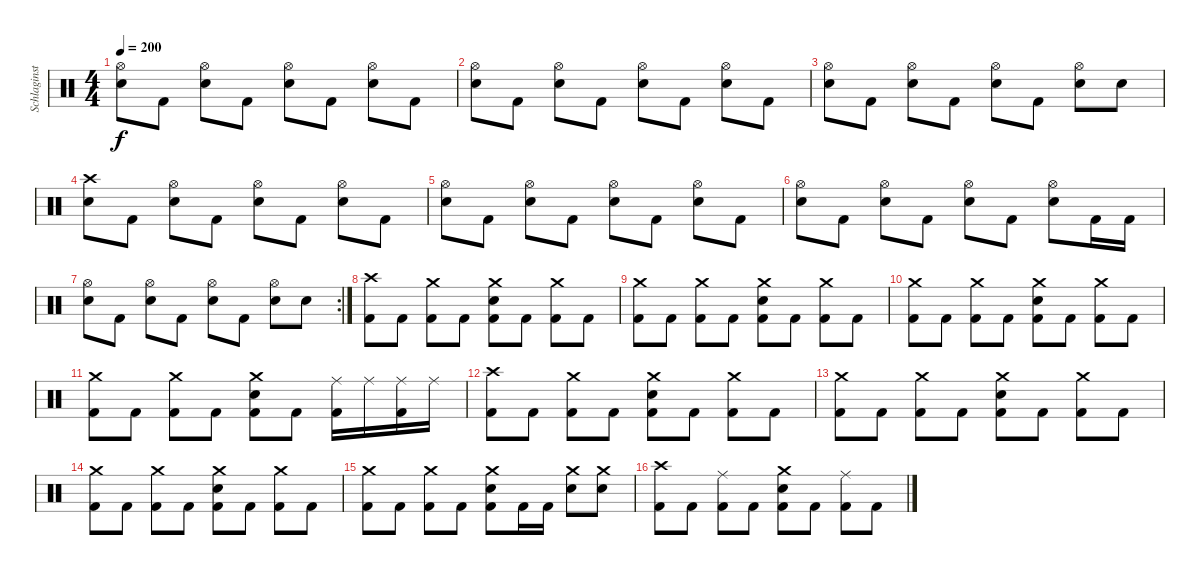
\track ("Schlaginstrumente - Auswahl" "Schlaginst") {instrument percussion}
\staff {score}
\articulation defaults
\ts (4 4)
\tempo 200
\clef neutral
\ks c
("Hi-Hat (open)" "Electric Snare (hit)").8{dy f} "Kick (hit) 2".8 ("Hi-Hat (open)" "Electric Snare (hit)").8 "Kick (hit) 2".8 ("Hi-Hat (open)" "Electric Snare (hit)").8 "Kick (hit) 2".8 ("Hi-Hat (open)" "Electric Snare (hit)").8 "Kick (hit) 2".8 |
("Hi-Hat (open)" "Electric Snare (hit)").8 "Kick (hit) 2".8 ("Hi-Hat (open)" "Electric Snare (hit)").8 "Kick (hit) 2".8 ("Hi-Hat (open)" "Electric Snare (hit)").8 "Kick (hit) 2".8 ("Hi-Hat (open)" "Electric Snare (hit)").8 "Kick (hit) 2".8 |
("Hi-Hat (open)" "Electric Snare (hit)").8 "Kick (hit) 2".8 ("Hi-Hat (open)" "Electric Snare (hit)").8 "Kick (hit) 2".8 ("Hi-Hat (open)" "Electric Snare (hit)").8 "Kick (hit) 2".8 ("Hi-Hat (open)" "Electric Snare (hit)").8 "Electric Snare (hit)".8 |
("Crash high (hit)" "Electric Snare (hit)").8 "Kick (hit) 2".8 ("Hi-Hat (open)" "Electric Snare (hit)").8 "Kick (hit) 2".8 ("Hi-Hat (open)" "Electric Snare (hit)").8 "Kick (hit) 2".8 ("Hi-Hat (open)" "Electric Snare (hit)").8 "Kick (hit) 2".8 |
("Hi-Hat (open)" "Electric Snare (hit)").8 "Kick (hit) 2".8 ("Hi-Hat (open)" "Electric Snare (hit)").8 "Kick (hit) 2".8 ("Hi-Hat (open)" "Electric Snare (hit)").8 "Kick (hit) 2".8 ("Hi-Hat (open)" "Electric Snare (hit)").8 "Kick (hit) 2".8 |
("Hi-Hat (open)" "Electric Snare (hit)").8 "Kick (hit) 2".8 ("Hi-Hat (open)" "Electric Snare (hit)").8 "Kick (hit) 2".8 ("Hi-Hat (open)" "Electric Snare (hit)").8 "Kick (hit) 2".8 ("Hi-Hat (open)" "Electric Snare (hit)").8 "Kick (hit) 2".16 "Kick (hit) 2".16 |
\rc 2
("Hi-Hat (open)" "Electric Snare (hit)").8 "Kick (hit) 2".8 ("Hi-Hat (open)" "Electric Snare (hit)").8 "Kick (hit) 2".8 ("Hi-Hat (open)" "Electric Snare (hit)").8 "Kick (hit) 2".8 ("Hi-Hat (open)" "Electric Snare (hit)").8 "Electric Snare (hit)".8 |
("Crash high (hit)" "Kick (hit) 2").8 "Kick (hit) 2".8 ("Crash medium (hit)" "Kick (hit) 2").8 "Kick (hit) 2".8 ("Crash medium (hit)" "Electric Snare (hit)" "Kick (hit) 2").8 "Kick (hit) 2".8 ("Crash medium (hit)" "Kick (hit) 2").8 "Kick (hit) 2".8 |
("Crash medium (hit)" "Kick (hit) 2").8 "Kick (hit) 2".8 ("Crash medium (hit)" "Kick (hit) 2").8 "Kick (hit) 2".8 ("Crash medium (hit)" "Electric Snare (hit)" "Kick (hit) 2").8 "Kick (hit) 2".8 ("Crash medium (hit)" "Kick (hit) 2").8 "Kick (hit) 2".8 |
("Crash medium (hit)" "Kick (hit) 2").8 "Kick (hit) 2".8 ("Crash medium (hit)" "Kick (hit) 2").8 "Kick (hit) 2".8 ("Crash medium (hit)" "Electric Snare (hit)" "Kick (hit) 2").8 "Kick (hit) 2".8 ("Crash medium (hit)" "Kick (hit) 2").8 "Kick (hit) 2".8 |
("Crash medium (hit)" "Kick (hit) 2").8 "Kick (hit) 2".8 ("Crash medium (hit)" "Kick (hit) 2").8 "Kick (hit) 2".8 ("Crash medium (hit)" "Electric Snare (hit)" "Kick (hit) 2").8 "Kick (hit) 2".8 ("Ride (middle)" "Kick (hit) 2").16 "Ride (middle)".16 ("Ride (middle)" "Kick (hit) 2").16 "Ride (middle)".16 |
("Crash high (hit)" "Kick (hit) 2").8 "Kick (hit) 2".8 ("Crash medium (hit)" "Kick (hit) 2").8 "Kick (hit) 2".8 ("Crash medium (hit)" "Electric Snare (hit)" "Kick (hit) 2").8 "Kick (hit) 2".8 ("Crash medium (hit)" "Kick (hit) 2").8 "Kick (hit) 2".8 |
("Crash medium (hit)" "Kick (hit) 2").8 "Kick (hit) 2".8 ("Crash medium (hit)" "Kick (hit) 2").8 "Kick (hit) 2".8 ("Crash medium (hit)" "Electric Snare (hit)" "Kick (hit) 2").8 "Kick (hit) 2".8 ("Crash medium (hit)" "Kick (hit) 2").8 "Kick (hit) 2".8 |
("Crash medium (hit)" "Kick (hit) 2").8 "Kick (hit) 2".8 ("Crash medium (hit)" "Kick (hit) 2").8 "Kick (hit) 2".8 ("Crash medium (hit)" "Electric Snare (hit)" "Kick (hit) 2").8 "Kick (hit) 2".8 ("Crash medium (hit)" "Kick (hit) 2").8 "Kick (hit) 2".8 |
("Crash medium (hit)" "Kick (hit) 2").8 "Kick (hit) 2".8 ("Crash medium (hit)" "Kick (hit) 2").8 "Kick (hit) 2".8 ("Crash medium (hit)" "Electric Snare (hit)" "Kick (hit) 2").8 "Kick (hit) 2".16 "Kick (hit) 2".16 ("Crash medium (hit)" "Electric Snare (hit)").8 ("Crash medium (hit)" "Electric Snare (hit)").8 |
("Crash high (hit)" "Kick (hit) 2").8 "Kick (hit) 2".8 ("Ride (middle)" "Kick (hit) 2").8 "Kick (hit) 2".8 ("Crash medium (hit)" "Electric Snare (hit)" "Kick (hit) 2").8 "Kick (hit) 2".8 ("Ride (middle)" "Kick (hit) 2").8 "Kick (hit) 2".8
